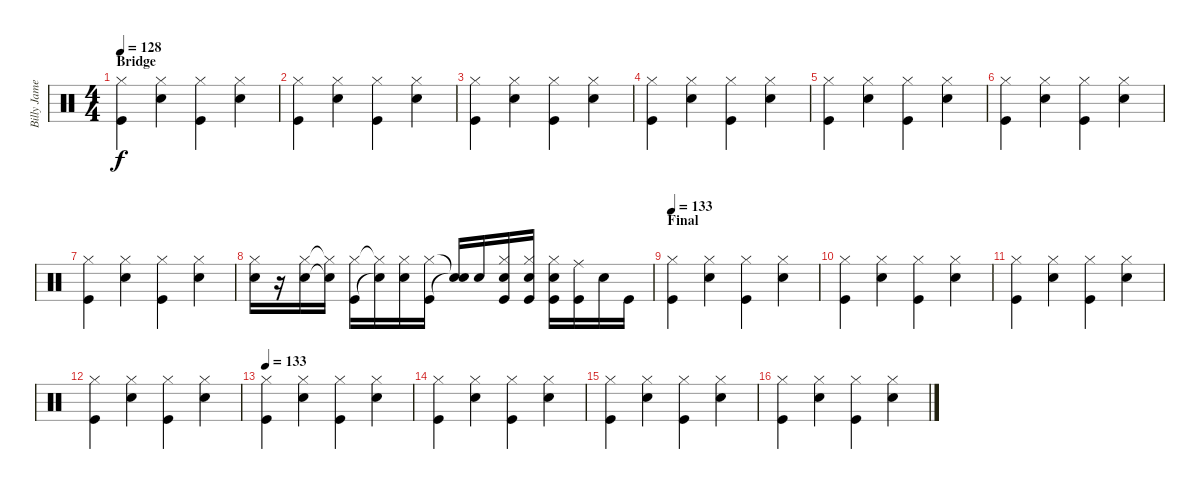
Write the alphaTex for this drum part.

\track ("Billy James (Drums)" "Billy Jame") {instrument percussion}
\staff {score}
\articulation defaults
\ts (4 4)
\section ("" "Bridge")
\tempo 128
\clef neutral
\ks c
("Kick (hit)" "Hi-Hat (closed)").4{dy f} ("Snare (hit) 2" "Hi-Hat (closed)").4 ("Kick (hit)" "Hi-Hat (closed)").4 ("Snare (hit) 2" "Hi-Hat (closed)").4 |
("Kick (hit)" "Hi-Hat (closed)").4 ("Snare (hit) 2" "Hi-Hat (closed)").4 ("Kick (hit)" "Hi-Hat (closed)").4 ("Snare (hit) 2" "Hi-Hat (closed)").4 |
("Kick (hit)" "Hi-Hat (closed)").4 ("Snare (hit) 2" "Hi-Hat (closed)").4 ("Kick (hit)" "Hi-Hat (closed)").4 ("Snare (hit) 2" "Hi-Hat (closed)").4 |
("Kick (hit)" "Hi-Hat (closed)").4 ("Snare (hit) 2" "Hi-Hat (closed)").4 ("Kick (hit)" "Hi-Hat (closed)").4 ("Snare (hit) 2" "Hi-Hat (closed)").4 |
("Kick (hit)" "Hi-Hat (closed)").4 ("Snare (hit) 2" "Hi-Hat (closed)").4 ("Kick (hit)" "Hi-Hat (closed)").4 ("Snare (hit) 2" "Hi-Hat (closed)").4 |
("Kick (hit)" "Hi-Hat (closed)").4 ("Snare (hit) 2" "Hi-Hat (closed)").4 ("Kick (hit)" "Hi-Hat (closed)").4 ("Snare (hit) 2" "Hi-Hat (closed)").4 |
("Kick (hit)" "Hi-Hat (closed)").4 ("Snare (hit) 2" "Hi-Hat (closed)").4 ("Kick (hit)" "Hi-Hat (closed)").4 ("Snare (hit) 2" "Hi-Hat (closed)").4 |
("Hi-Hat (closed)" "Snare (hit) 2").16 r.16 ("Hi-Hat (closed)" "Snare (hit) 2").16 ("Hi-Hat (closed)"{t} "Snare (hit) 2"{t}).16 ("Hi-Hat (closed)" "Kick (hit)").16 ("Hi-Hat (closed)"{t} "Snare (hit) 2"{t}).16 ("Hi-Hat (closed)" "Snare (hit) 2").16 ("Hi-Hat (closed)" "Kick (hit)").16 ("Snare (hit)"{t} "Snare (hit) 2"{t}).16 "Snare (hit) 2".16 ("Hi-Hat (closed)" "Kick (hit)" "Snare (hit) 2").16 ("Hi-Hat (closed)" "Kick (hit)" "Snare (hit) 2").16 ("Hi-Hat (closed)" "Kick (hit)" "Snare (hit) 2").16 ("Ride (middle)" "Kick (hit)").16 "Snare (hit) 2".16 "Kick (hit)".16 |
\section ("" "Final")
\tempo 128
\tempo 133
("Kick (hit)" "Hi-Hat (closed)").4 ("Snare (hit) 2" "Hi-Hat (closed)").4 ("Kick (hit)" "Hi-Hat (closed)").4 ("Snare (hit) 2" "Hi-Hat (closed)").4 |
("Kick (hit)" "Hi-Hat (closed)").4 ("Snare (hit) 2" "Hi-Hat (closed)").4 ("Kick (hit)" "Hi-Hat (closed)").4 ("Snare (hit) 2" "Hi-Hat (closed)").4 |
("Kick (hit)" "Hi-Hat (closed)").4 ("Snare (hit) 2" "Hi-Hat (closed)").4 ("Kick (hit)" "Hi-Hat (closed)").4 ("Snare (hit) 2" "Hi-Hat (closed)").4 |
("Kick (hit)" "Hi-Hat (closed)").4 ("Snare (hit) 2" "Hi-Hat (closed)").4 ("Kick (hit)" "Hi-Hat (closed)").4 ("Snare (hit) 2" "Hi-Hat (closed)").4 |
\tempo 133
("Kick (hit)" "Hi-Hat (closed)").4 ("Snare (hit) 2" "Hi-Hat (closed)").4 ("Kick (hit)" "Hi-Hat (closed)").4 ("Snare (hit) 2" "Hi-Hat (closed)").4 |
("Kick (hit)" "Hi-Hat (closed)").4 ("Snare (hit) 2" "Hi-Hat (closed)").4 ("Kick (hit)" "Hi-Hat (closed)").4 ("Snare (hit) 2" "Hi-Hat (closed)").4 |
("Kick (hit)" "Hi-Hat (closed)").4 ("Snare (hit) 2" "Hi-Hat (closed)").4 ("Kick (hit)" "Hi-Hat (closed)").4 ("Snare (hit) 2" "Hi-Hat (closed)").4 |
("Kick (hit)" "Hi-Hat (closed)").4 ("Snare (hit) 2" "Hi-Hat (closed)").4 ("Kick (hit)" "Hi-Hat (closed)").4 ("Snare (hit) 2" "Hi-Hat (closed)").4
